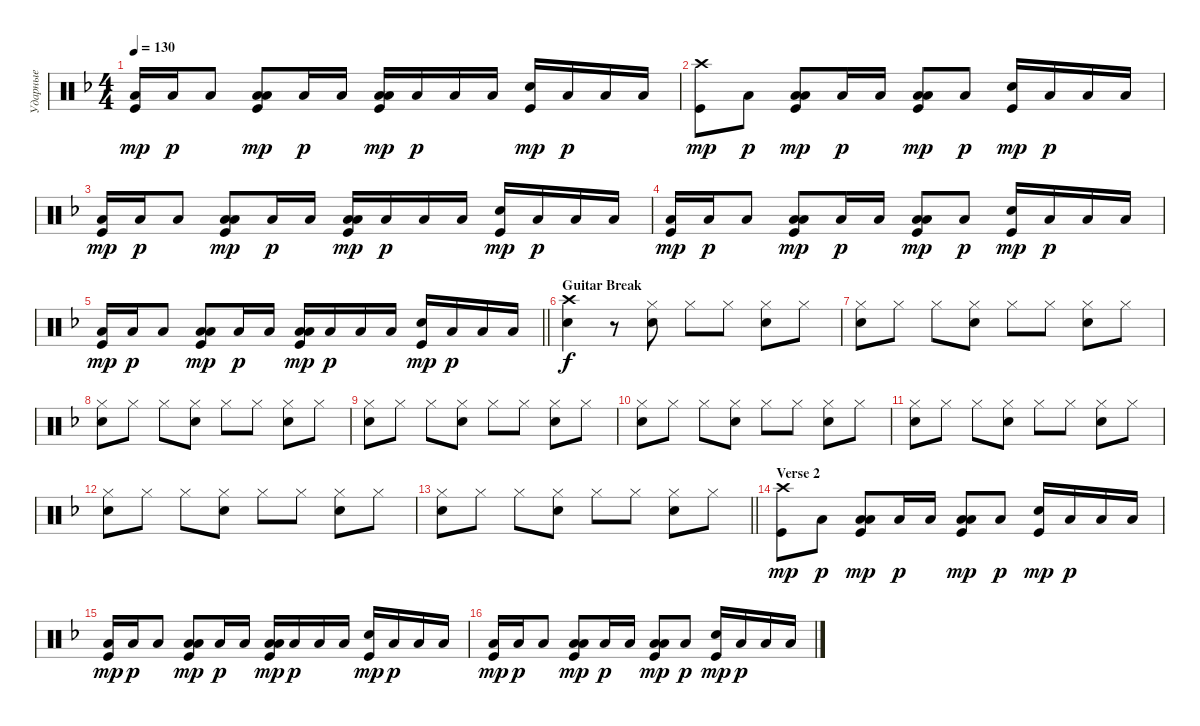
\track ("Ударные" "Ударные") {instrument percussion}
\staff {score}
\articulation defaults
\ts (4 4)
\tempo 130
\clef neutral
\ks dminor
("Low Tom (hit)" "Kick (hit)").16{dy mp} "Low Tom (hit)".16{dy p} "Low Tom (hit)".8{bd 240} ("Low Tom (hit)" "Kick (hit)" "Low Tom (hit)").8{bd 240 dy mp} "Low Tom (hit)".16{dy p} "Low Tom (hit)".16 ("Low Tom (hit)" "Kick (hit)" "Low Tom (hit)").16{bd 240 dy mp} "Low Tom (hit)".16{dy p} "Low Tom (hit)".16 "Low Tom (hit)".16 ("Kick (hit)" "Snare (hit) 2").16{dy mp} "Low Tom (hit)".16{dy p} "Low Tom (hit)".16 "Low Tom (hit)".16 |
("Kick (hit)" "Crash high (hit)").8{dy mp} "Low Tom (hit)".8{dy p} ("Low Tom (hit)" "Kick (hit)" "Low Tom (hit)").8{bd 240 dy mp} "Low Tom (hit)".16{dy p} "Low Tom (hit)".16 ("Low Tom (hit)" "Kick (hit)" "Low Tom (hit)").8{bd 240 dy mp} "Low Tom (hit)".8{dy p} ("Kick (hit)" "Snare (hit) 2").16{dy mp} "Low Tom (hit)".16{dy p} "Low Tom (hit)".16 "Low Tom (hit)".16 |
("Low Tom (hit)" "Kick (hit)").16{dy mp} "Low Tom (hit)".16{dy p} "Low Tom (hit)".8{bd 240} ("Low Tom (hit)" "Kick (hit)" "Low Tom (hit)").8{bd 240 dy mp} "Low Tom (hit)".16{dy p} "Low Tom (hit)".16 ("Low Tom (hit)" "Kick (hit)" "Low Tom (hit)").16{bd 240 dy mp} "Low Tom (hit)".16{dy p} "Low Tom (hit)".16 "Low Tom (hit)".16 ("Kick (hit)" "Snare (hit) 2").16{dy mp} "Low Tom (hit)".16{dy p} "Low Tom (hit)".16 "Low Tom (hit)".16 |
("Low Tom (hit)" "Kick (hit)").16{dy mp} "Low Tom (hit)".16{dy p} "Low Tom (hit)".8{bd 240} ("Low Tom (hit)" "Kick (hit)" "Low Tom (hit)").8{bd 240 dy mp} "Low Tom (hit)".16{dy p} "Low Tom (hit)".16 ("Low Tom (hit)" "Kick (hit)" "Low Tom (hit)").8{bd 240 dy mp} "Low Tom (hit)".8{dy p} ("Kick (hit)" "Snare (hit) 2").16{dy mp} "Low Tom (hit)".16{dy p} "Low Tom (hit)".16 "Low Tom (hit)".16 |
\barLineRight lightlight
("Low Tom (hit)" "Kick (hit)").16{dy mp} "Low Tom (hit)".16{dy p} "Low Tom (hit)".8{bd 240} ("Low Tom (hit)" "Kick (hit)" "Low Tom (hit)").8{bd 240 dy mp} "Low Tom (hit)".16{dy p} "Low Tom (hit)".16 ("Low Tom (hit)" "Kick (hit)" "Low Tom (hit)").16{bd 240 dy mp} "Low Tom (hit)".16{dy p} "Low Tom (hit)".16 "Low Tom (hit)".16 ("Kick (hit)" "Snare (hit) 2").16{dy mp} "Low Tom (hit)".16{dy p} "Low Tom (hit)".16 "Low Tom (hit)".16 |
\section ("" "Guitar Break")
("Snare (hit) 2" "Crash high (hit)").4{dy f} r.8 ("Hi-Hat (closed)" "Snare (hit) 2").8 "Hi-Hat (closed)".8 "Hi-Hat (closed)".8 ("Hi-Hat (closed)" "Snare (hit) 2").8 "Hi-Hat (closed)".8 |
("Snare (hit) 2" "Hi-Hat (closed)").8 "Hi-Hat (closed)".8 "Hi-Hat (closed)".8 ("Hi-Hat (closed)" "Snare (hit) 2").8 "Hi-Hat (closed)".8 "Hi-Hat (closed)".8 ("Hi-Hat (closed)" "Snare (hit) 2").8 "Hi-Hat (closed)".8 |
("Snare (hit) 2" "Hi-Hat (closed)").8 "Hi-Hat (closed)".8 "Hi-Hat (closed)".8 ("Hi-Hat (closed)" "Snare (hit) 2").8 "Hi-Hat (closed)".8 "Hi-Hat (closed)".8 ("Hi-Hat (closed)" "Snare (hit) 2").8 "Hi-Hat (closed)".8 |
("Snare (hit) 2" "Hi-Hat (closed)").8 "Hi-Hat (closed)".8 "Hi-Hat (closed)".8 ("Hi-Hat (closed)" "Snare (hit) 2").8 "Hi-Hat (closed)".8 "Hi-Hat (closed)".8 ("Hi-Hat (closed)" "Snare (hit) 2").8 "Hi-Hat (closed)".8 |
("Snare (hit) 2" "Hi-Hat (closed)").8 "Hi-Hat (closed)".8 "Hi-Hat (closed)".8 ("Hi-Hat (closed)" "Snare (hit) 2").8 "Hi-Hat (closed)".8 "Hi-Hat (closed)".8 ("Hi-Hat (closed)" "Snare (hit) 2").8 "Hi-Hat (closed)".8 |
("Snare (hit) 2" "Hi-Hat (closed)").8 "Hi-Hat (closed)".8 "Hi-Hat (closed)".8 ("Hi-Hat (closed)" "Snare (hit) 2").8 "Hi-Hat (closed)".8 "Hi-Hat (closed)".8 ("Hi-Hat (closed)" "Snare (hit) 2").8 "Hi-Hat (closed)".8 |
("Snare (hit) 2" "Hi-Hat (closed)").8 "Hi-Hat (closed)".8 "Hi-Hat (closed)".8 ("Hi-Hat (closed)" "Snare (hit) 2").8 "Hi-Hat (closed)".8 "Hi-Hat (closed)".8 ("Hi-Hat (closed)" "Snare (hit) 2").8 "Hi-Hat (closed)".8 |
\barLineRight lightlight
("Snare (hit) 2" "Hi-Hat (closed)").8 "Hi-Hat (closed)".8 "Hi-Hat (closed)".8 ("Hi-Hat (closed)" "Snare (hit) 2").8 "Hi-Hat (closed)".8 "Hi-Hat (closed)".8 ("Hi-Hat (closed)" "Snare (hit) 2").8 "Hi-Hat (closed)".8 |
\section ("" "Verse 2")
("Kick (hit)" "Crash high (hit)").8{dy mp} "Low Tom (hit)".8{dy p} ("Low Tom (hit)" "Kick (hit)" "Low Tom (hit)").8{bd 240 dy mp} "Low Tom (hit)".16{dy p} "Low Tom (hit)".16 ("Low Tom (hit)" "Kick (hit)" "Low Tom (hit)").8{bd 240 dy mp} "Low Tom (hit)".8{dy p} ("Kick (hit)" "Snare (hit) 2").16{dy mp} "Low Tom (hit)".16{dy p} "Low Tom (hit)".16 "Low Tom (hit)".16 |
("Low Tom (hit)" "Kick (hit)").16{dy mp} "Low Tom (hit)".16{dy p} "Low Tom (hit)".8{bd 240} ("Low Tom (hit)" "Kick (hit)" "Low Tom (hit)").8{bd 240 dy mp} "Low Tom (hit)".16{dy p} "Low Tom (hit)".16 ("Low Tom (hit)" "Kick (hit)" "Low Tom (hit)").16{bd 240 dy mp} "Low Tom (hit)".16{dy p} "Low Tom (hit)".16 "Low Tom (hit)".16 ("Kick (hit)" "Snare (hit) 2").16{dy mp} "Low Tom (hit)".16{dy p} "Low Tom (hit)".16 "Low Tom (hit)".16 |
("Low Tom (hit)" "Kick (hit)").16{dy mp} "Low Tom (hit)".16{dy p} "Low Tom (hit)".8{bd 240} ("Low Tom (hit)" "Kick (hit)" "Low Tom (hit)").8{bd 240 dy mp} "Low Tom (hit)".16{dy p} "Low Tom (hit)".16 ("Low Tom (hit)" "Kick (hit)" "Low Tom (hit)").8{bd 240 dy mp} "Low Tom (hit)".8{dy p} ("Kick (hit)" "Snare (hit) 2").16{dy mp} "Low Tom (hit)".16{dy p} "Low Tom (hit)".16 "Low Tom (hit)".16
